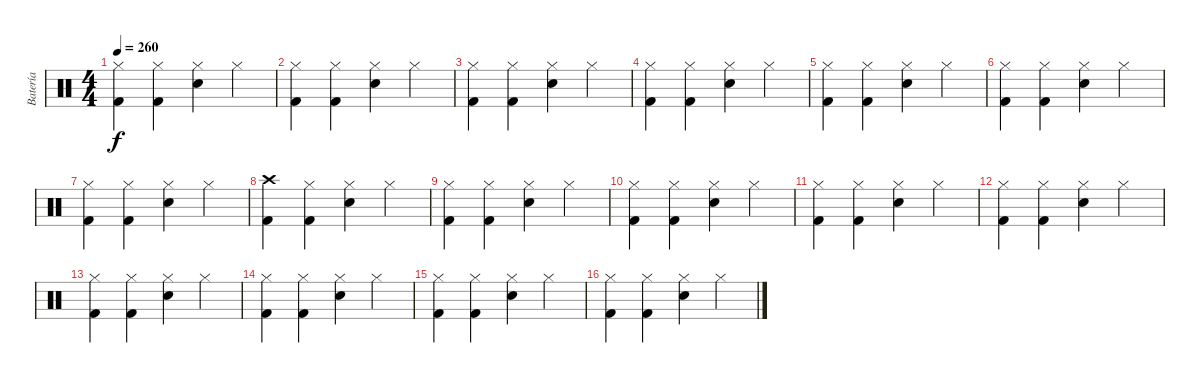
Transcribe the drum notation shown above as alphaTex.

\track ("Batería" "Batería") {instrument percussion}
\staff {score}
\articulation defaults
\ts (4 4)
\tempo 260
\clef neutral
\ks c
("Kick (hit) 2" "Hi-Hat (closed)").4{dy f} ("Kick (hit) 2" "Hi-Hat (closed)").4 ("Snare (hit) 2" "Hi-Hat (closed)").4 "Hi-Hat (closed)".4 |
("Kick (hit) 2" "Hi-Hat (closed)").4 ("Kick (hit) 2" "Hi-Hat (closed)").4 ("Snare (hit) 2" "Hi-Hat (closed)").4 "Hi-Hat (closed)".4 |
("Kick (hit) 2" "Hi-Hat (closed)").4 ("Kick (hit) 2" "Hi-Hat (closed)").4 ("Snare (hit) 2" "Hi-Hat (closed)").4 "Hi-Hat (closed)".4 |
("Kick (hit) 2" "Hi-Hat (closed)").4 ("Kick (hit) 2" "Hi-Hat (closed)").4 ("Snare (hit) 2" "Hi-Hat (closed)").4 "Hi-Hat (closed)".4 |
("Kick (hit) 2" "Hi-Hat (closed)").4 ("Kick (hit) 2" "Hi-Hat (closed)").4 ("Snare (hit) 2" "Hi-Hat (closed)").4 "Hi-Hat (closed)".4 |
("Kick (hit) 2" "Hi-Hat (closed)").4 ("Kick (hit) 2" "Hi-Hat (closed)").4 ("Snare (hit) 2" "Hi-Hat (closed)").4 "Hi-Hat (closed)".4 |
("Kick (hit) 2" "Hi-Hat (closed)").4 ("Kick (hit) 2" "Hi-Hat (closed)").4 ("Snare (hit) 2" "Hi-Hat (closed)").4 "Hi-Hat (closed)".4 |
("Kick (hit) 2" "Crash high (hit)").4 ("Kick (hit) 2" "Hi-Hat (closed)").4 ("Snare (hit) 2" "Hi-Hat (closed)").4 "Hi-Hat (closed)".4 |
("Kick (hit) 2" "Hi-Hat (closed)").4 ("Kick (hit) 2" "Hi-Hat (closed)").4 ("Snare (hit) 2" "Hi-Hat (closed)").4 "Hi-Hat (closed)".4 |
("Kick (hit) 2" "Hi-Hat (closed)").4 ("Kick (hit) 2" "Hi-Hat (closed)").4 ("Snare (hit) 2" "Hi-Hat (closed)").4 "Hi-Hat (closed)".4 |
("Kick (hit) 2" "Hi-Hat (closed)").4 ("Kick (hit) 2" "Hi-Hat (closed)").4 ("Snare (hit) 2" "Hi-Hat (closed)").4 "Hi-Hat (closed)".4 |
("Kick (hit) 2" "Hi-Hat (closed)").4 ("Kick (hit) 2" "Hi-Hat (closed)").4 ("Snare (hit) 2" "Hi-Hat (closed)").4 "Hi-Hat (closed)".4 |
("Kick (hit) 2" "Hi-Hat (closed)").4 ("Kick (hit) 2" "Hi-Hat (closed)").4 ("Snare (hit) 2" "Hi-Hat (closed)").4 "Hi-Hat (closed)".4 |
("Kick (hit) 2" "Hi-Hat (closed)").4 ("Kick (hit) 2" "Hi-Hat (closed)").4 ("Snare (hit) 2" "Hi-Hat (closed)").4 "Hi-Hat (closed)".4 |
("Kick (hit) 2" "Hi-Hat (closed)").4 ("Kick (hit) 2" "Hi-Hat (closed)").4 ("Snare (hit) 2" "Hi-Hat (closed)").4 "Hi-Hat (closed)".4 |
("Kick (hit) 2" "Hi-Hat (closed)").4 ("Kick (hit) 2" "Hi-Hat (closed)").4 ("Snare (hit) 2" "Hi-Hat (closed)").4 "Hi-Hat (closed)".4
